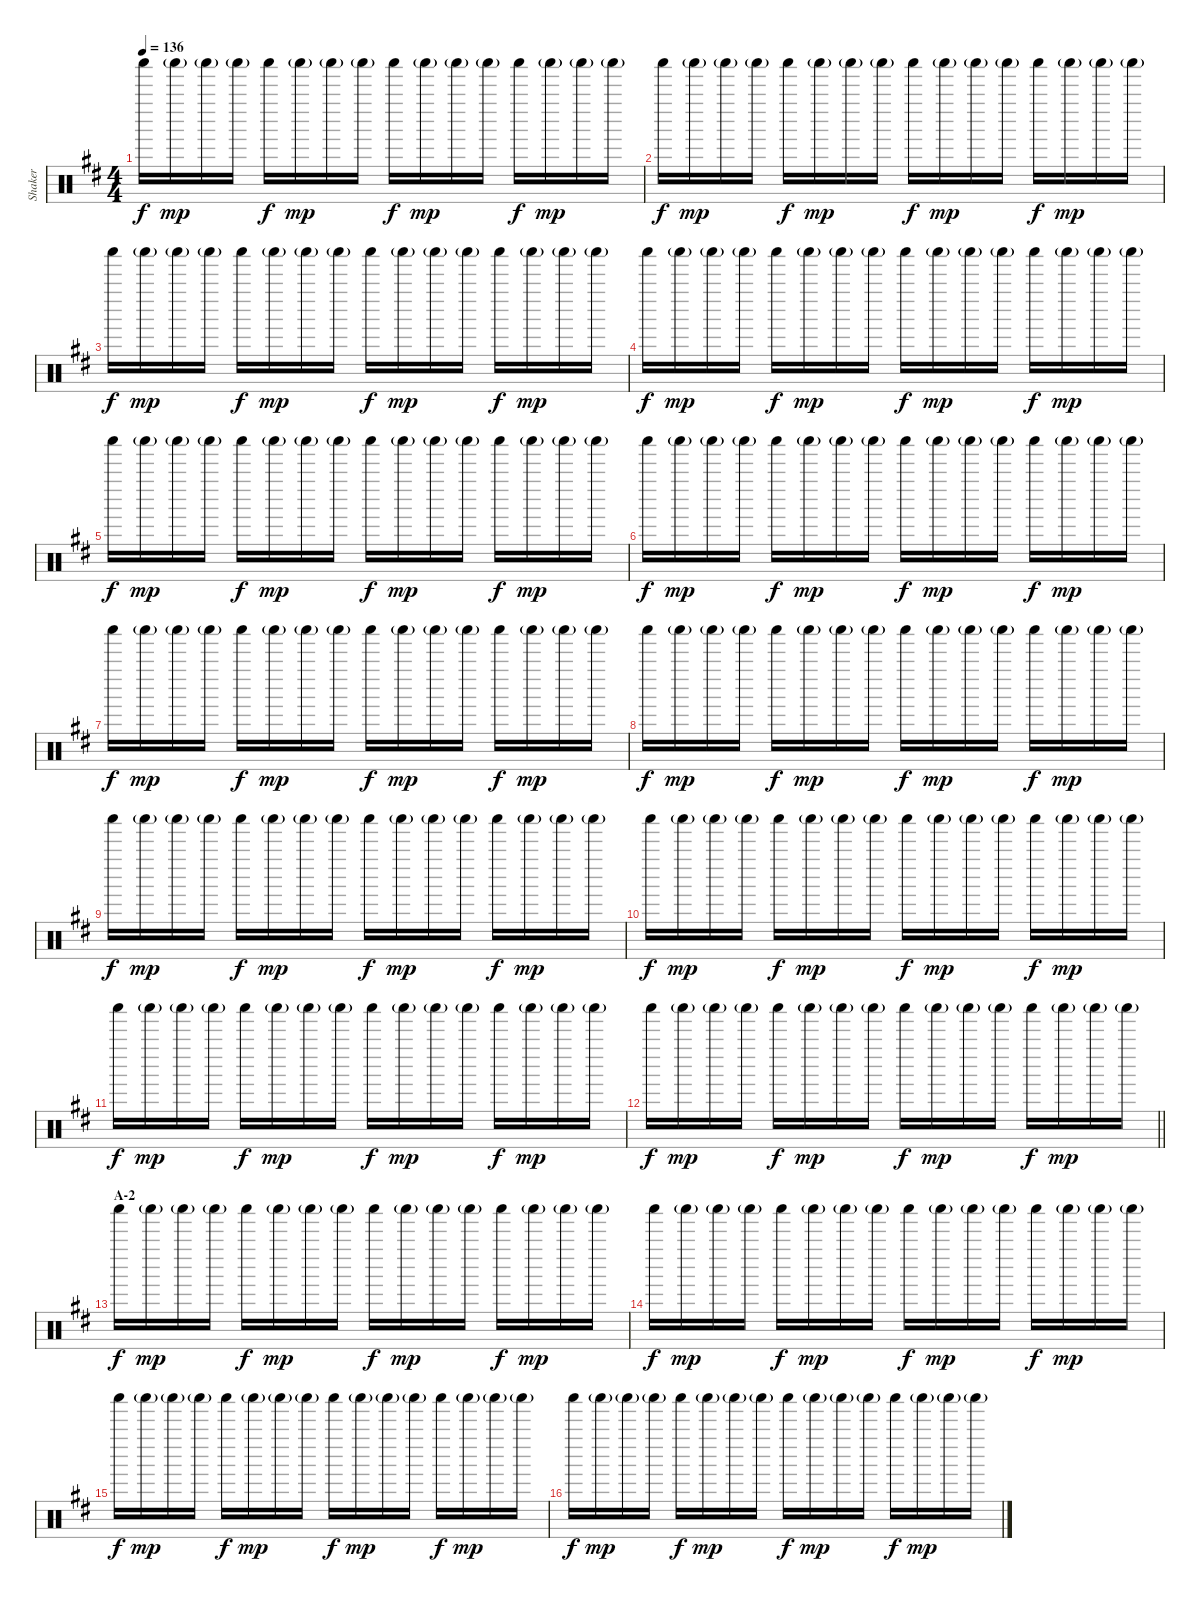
\track ("Shaker" "Shaker") {instrument percussion}
\staff {score}
\articulation defaults
\ts (4 4)
\tempo 136
\clef neutral
\ks d "Shaker (hit)".16{dy f} "Shaker (hit)"{g}.16{dy mp} "Shaker (hit)"{g}.16 "Shaker (hit)"{g}.16 "Shaker (hit)".16{dy f} "Shaker (hit)"{g}.16{dy mp} "Shaker (hit)"{g}.16 "Shaker (hit)"{g}.16 "Shaker (hit)".16{dy f} "Shaker (hit)"{g}.16{dy mp} "Shaker (hit)"{g}.16 "Shaker (hit)"{g}.16 "Shaker (hit)".16{dy f} "Shaker (hit)"{g}.16{dy mp} "Shaker (hit)"{g}.16 "Shaker (hit)"{g}.16
|
"Shaker (hit)".16{dy f} "Shaker (hit)"{g}.16{dy mp} "Shaker (hit)"{g}.16 "Shaker (hit)"{g}.16 "Shaker (hit)".16{dy f} "Shaker (hit)"{g}.16{dy mp} "Shaker (hit)"{g}.16 "Shaker (hit)"{g}.16 "Shaker (hit)".16{dy f} "Shaker (hit)"{g}.16{dy mp} "Shaker (hit)"{g}.16 "Shaker (hit)"{g}.16 "Shaker (hit)".16{dy f} "Shaker (hit)"{g}.16{dy mp} "Shaker (hit)"{g}.16 "Shaker (hit)"{g}.16 |
"Shaker (hit)".16{dy f} "Shaker (hit)"{g}.16{dy mp} "Shaker (hit)"{g}.16 "Shaker (hit)"{g}.16 "Shaker (hit)".16{dy f} "Shaker (hit)"{g}.16{dy mp} "Shaker (hit)"{g}.16 "Shaker (hit)"{g}.16 "Shaker (hit)".16{dy f} "Shaker (hit)"{g}.16{dy mp} "Shaker (hit)"{g}.16 "Shaker (hit)"{g}.16 "Shaker (hit)".16{dy f} "Shaker (hit)"{g}.16{dy mp} "Shaker (hit)"{g}.16 "Shaker (hit)"{g}.16 |
"Shaker (hit)".16{dy f} "Shaker (hit)"{g}.16{dy mp} "Shaker (hit)"{g}.16 "Shaker (hit)"{g}.16 "Shaker (hit)".16{dy f} "Shaker (hit)"{g}.16{dy mp} "Shaker (hit)"{g}.16 "Shaker (hit)"{g}.16 "Shaker (hit)".16{dy f} "Shaker (hit)"{g}.16{dy mp} "Shaker (hit)"{g}.16 "Shaker (hit)"{g}.16 "Shaker (hit)".16{dy f} "Shaker (hit)"{g}.16{dy mp} "Shaker (hit)"{g}.16 "Shaker (hit)"{g}.16 |
"Shaker (hit)".16{dy f} "Shaker (hit)"{g}.16{dy mp} "Shaker (hit)"{g}.16 "Shaker (hit)"{g}.16 "Shaker (hit)".16{dy f} "Shaker (hit)"{g}.16{dy mp} "Shaker (hit)"{g}.16 "Shaker (hit)"{g}.16 "Shaker (hit)".16{dy f} "Shaker (hit)"{g}.16{dy mp} "Shaker (hit)"{g}.16 "Shaker (hit)"{g}.16 "Shaker (hit)".16{dy f} "Shaker (hit)"{g}.16{dy mp} "Shaker (hit)"{g}.16 "Shaker (hit)"{g}.16 |
"Shaker (hit)".16{dy f} "Shaker (hit)"{g}.16{dy mp} "Shaker (hit)"{g}.16 "Shaker (hit)"{g}.16 "Shaker (hit)".16{dy f} "Shaker (hit)"{g}.16{dy mp} "Shaker (hit)"{g}.16 "Shaker (hit)"{g}.16 "Shaker (hit)".16{dy f} "Shaker (hit)"{g}.16{dy mp} "Shaker (hit)"{g}.16 "Shaker (hit)"{g}.16 "Shaker (hit)".16{dy f} "Shaker (hit)"{g}.16{dy mp} "Shaker (hit)"{g}.16 "Shaker (hit)"{g}.16 |
"Shaker (hit)".16{dy f} "Shaker (hit)"{g}.16{dy mp} "Shaker (hit)"{g}.16 "Shaker (hit)"{g}.16 "Shaker (hit)".16{dy f} "Shaker (hit)"{g}.16{dy mp} "Shaker (hit)"{g}.16 "Shaker (hit)"{g}.16 "Shaker (hit)".16{dy f} "Shaker (hit)"{g}.16{dy mp} "Shaker (hit)"{g}.16 "Shaker (hit)"{g}.16 "Shaker (hit)".16{dy f} "Shaker (hit)"{g}.16{dy mp} "Shaker (hit)"{g}.16 "Shaker (hit)"{g}.16 |
"Shaker (hit)".16{dy f} "Shaker (hit)"{g}.16{dy mp} "Shaker (hit)"{g}.16 "Shaker (hit)"{g}.16 "Shaker (hit)".16{dy f} "Shaker (hit)"{g}.16{dy mp} "Shaker (hit)"{g}.16 "Shaker (hit)"{g}.16 "Shaker (hit)".16{dy f} "Shaker (hit)"{g}.16{dy mp} "Shaker (hit)"{g}.16 "Shaker (hit)"{g}.16 "Shaker (hit)".16{dy f} "Shaker (hit)"{g}.16{dy mp} "Shaker (hit)"{g}.16 "Shaker (hit)"{g}.16 |
"Shaker (hit)".16{dy f} "Shaker (hit)"{g}.16{dy mp} "Shaker (hit)"{g}.16 "Shaker (hit)"{g}.16 "Shaker (hit)".16{dy f} "Shaker (hit)"{g}.16{dy mp} "Shaker (hit)"{g}.16 "Shaker (hit)"{g}.16 "Shaker (hit)".16{dy f} "Shaker (hit)"{g}.16{dy mp} "Shaker (hit)"{g}.16 "Shaker (hit)"{g}.16 "Shaker (hit)".16{dy f} "Shaker (hit)"{g}.16{dy mp} "Shaker (hit)"{g}.16 "Shaker (hit)"{g}.16 |
"Shaker (hit)".16{dy f} "Shaker (hit)"{g}.16{dy mp} "Shaker (hit)"{g}.16 "Shaker (hit)"{g}.16 "Shaker (hit)".16{dy f} "Shaker (hit)"{g}.16{dy mp} "Shaker (hit)"{g}.16 "Shaker (hit)"{g}.16 "Shaker (hit)".16{dy f} "Shaker (hit)"{g}.16{dy mp} "Shaker (hit)"{g}.16 "Shaker (hit)"{g}.16 "Shaker (hit)".16{dy f} "Shaker (hit)"{g}.16{dy mp} "Shaker (hit)"{g}.16 "Shaker (hit)"{g}.16 |
"Shaker (hit)".16{dy f} "Shaker (hit)"{g}.16{dy mp} "Shaker (hit)"{g}.16 "Shaker (hit)"{g}.16 "Shaker (hit)".16{dy f} "Shaker (hit)"{g}.16{dy mp} "Shaker (hit)"{g}.16 "Shaker (hit)"{g}.16 "Shaker (hit)".16{dy f} "Shaker (hit)"{g}.16{dy mp} "Shaker (hit)"{g}.16 "Shaker (hit)"{g}.16 "Shaker (hit)".16{dy f} "Shaker (hit)"{g}.16{dy mp} "Shaker (hit)"{g}.16 "Shaker (hit)"{g}.16 |
\barLineRight lightlight "Shaker (hit)".16{dy f} "Shaker (hit)"{g}.16{dy mp} "Shaker (hit)"{g}.16 "Shaker (hit)"{g}.16 "Shaker (hit)".16{dy f} "Shaker (hit)"{g}.16{dy mp} "Shaker (hit)"{g}.16 "Shaker (hit)"{g}.16 "Shaker (hit)".16{dy f} "Shaker (hit)"{g}.16{dy mp} "Shaker (hit)"{g}.16 "Shaker (hit)"{g}.16 "Shaker (hit)".16{dy f} "Shaker (hit)"{g}.16{dy mp} "Shaker (hit)"{g}.16 "Shaker (hit)"{g}.16
|
\section ("" "A-2")
"Shaker (hit)".16{dy f} "Shaker (hit)"{g}.16{dy mp} "Shaker (hit)"{g}.16 "Shaker (hit)"{g}.16 "Shaker (hit)".16{dy f} "Shaker (hit)"{g}.16{dy mp} "Shaker (hit)"{g}.16 "Shaker (hit)"{g}.16 "Shaker (hit)".16{dy f} "Shaker (hit)"{g}.16{dy mp} "Shaker (hit)"{g}.16 "Shaker (hit)"{g}.16 "Shaker (hit)".16{dy f} "Shaker (hit)"{g}.16{dy mp} "Shaker (hit)"{g}.16 "Shaker (hit)"{g}.16 |
"Shaker (hit)".16{dy f} "Shaker (hit)"{g}.16{dy mp} "Shaker (hit)"{g}.16 "Shaker (hit)"{g}.16 "Shaker (hit)".16{dy f} "Shaker (hit)"{g}.16{dy mp} "Shaker (hit)"{g}.16 "Shaker (hit)"{g}.16 "Shaker (hit)".16{dy f} "Shaker (hit)"{g}.16{dy mp} "Shaker (hit)"{g}.16 "Shaker (hit)"{g}.16 "Shaker (hit)".16{dy f} "Shaker (hit)"{g}.16{dy mp} "Shaker (hit)"{g}.16 "Shaker (hit)"{g}.16 |
"Shaker (hit)".16{dy f} "Shaker (hit)"{g}.16{dy mp} "Shaker (hit)"{g}.16 "Shaker (hit)"{g}.16 "Shaker (hit)".16{dy f} "Shaker (hit)"{g}.16{dy mp} "Shaker (hit)"{g}.16 "Shaker (hit)"{g}.16 "Shaker (hit)".16{dy f} "Shaker (hit)"{g}.16{dy mp} "Shaker (hit)"{g}.16 "Shaker (hit)"{g}.16 "Shaker (hit)".16{dy f} "Shaker (hit)"{g}.16{dy mp} "Shaker (hit)"{g}.16 "Shaker (hit)"{g}.16 |
"Shaker (hit)".16{dy f} "Shaker (hit)"{g}.16{dy mp} "Shaker (hit)"{g}.16 "Shaker (hit)"{g}.16 "Shaker (hit)".16{dy f} "Shaker (hit)"{g}.16{dy mp} "Shaker (hit)"{g}.16 "Shaker (hit)"{g}.16 "Shaker (hit)".16{dy f} "Shaker (hit)"{g}.16{dy mp} "Shaker (hit)"{g}.16 "Shaker (hit)"{g}.16 "Shaker (hit)".16{dy f} "Shaker (hit)"{g}.16{dy mp} "Shaker (hit)"{g}.16 "Shaker (hit)"{g}.16
